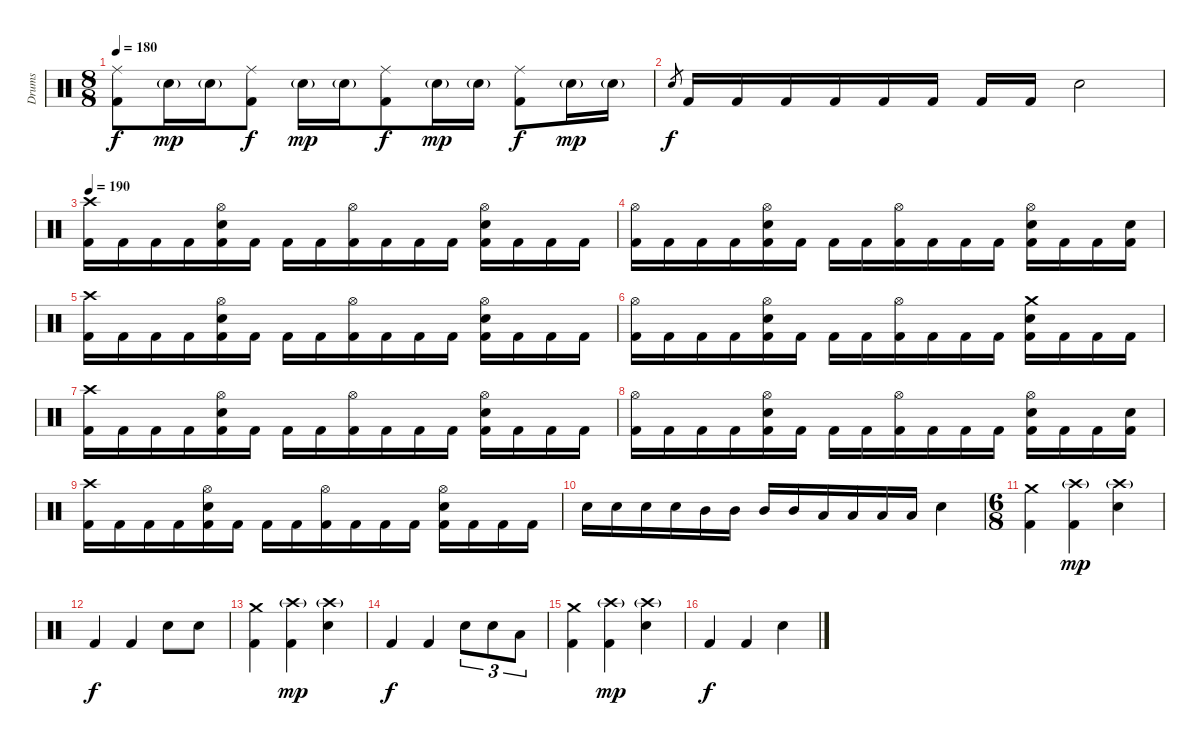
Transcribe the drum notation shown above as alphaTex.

\track ("Drums" "Drums") {instrument percussion}
\staff {score}
\articulation defaults
\ts (8 8)
\tempo 180
\clef neutral
\ks c
("Ride (middle)" "Kick (hit) 2").8{dy f} "Electric Snare (hit)"{g}.16{dy mp} "Electric Snare (hit)"{g}.16 ("Ride (middle)" "Kick (hit) 2").8{dy f} "Electric Snare (hit)"{g}.16{dy mp} "Electric Snare (hit)"{g}.16 ("Ride (middle)" "Kick (hit) 2").8{dy f} "Electric Snare (hit)"{g}.16{dy mp} "Electric Snare (hit)"{g}.16 ("Ride (middle)" "Kick (hit) 2").8{dy f} "Electric Snare (hit)"{g}.16{dy mp} "Electric Snare (hit)"{g}.16 |
"Electric Snare (hit)".8{gr dy f} "Kick (hit) 2".16 "Kick (hit) 2".16 "Kick (hit) 2".16 "Kick (hit) 2".16 "Kick (hit) 2".16 "Kick (hit) 2".16 "Kick (hit) 2".16 "Kick (hit) 2".16 "Electric Snare (hit)".2 |
\tempo 190
("Crash high (hit)" "Kick (hit) 2").16 "Kick (hit) 2".16 "Kick (hit) 2".16 "Kick (hit) 2".16 ("Hi-Hat (open)" "Electric Snare (hit)" "Kick (hit) 2").16 "Kick (hit) 2".16 "Kick (hit) 2".16 "Kick (hit) 2".16 ("Hi-Hat (open)" "Kick (hit) 2").16 "Kick (hit) 2".16 "Kick (hit) 2".16 "Kick (hit) 2".16 ("Hi-Hat (open)" "Electric Snare (hit)" "Kick (hit) 2").16 "Kick (hit) 2".16 "Kick (hit) 2".16 "Kick (hit) 2".16 |
("Hi-Hat (open)" "Kick (hit) 2").16 "Kick (hit) 2".16 "Kick (hit) 2".16 "Kick (hit) 2".16 ("Hi-Hat (open)" "Electric Snare (hit)" "Kick (hit) 2").16 "Kick (hit) 2".16 "Kick (hit) 2".16 "Kick (hit) 2".16 ("Hi-Hat (open)" "Kick (hit) 2").16 "Kick (hit) 2".16 "Kick (hit) 2".16 "Kick (hit) 2".16 ("Hi-Hat (open)" "Electric Snare (hit)" "Kick (hit) 2").16 "Kick (hit) 2".16 "Kick (hit) 2".16 ("Electric Snare (hit)" "Kick (hit) 2").16 |
("Crash high (hit)" "Kick (hit) 2").16 "Kick (hit) 2".16 "Kick (hit) 2".16 "Kick (hit) 2".16 ("Hi-Hat (open)" "Electric Snare (hit)" "Kick (hit) 2").16 "Kick (hit) 2".16 "Kick (hit) 2".16 "Kick (hit) 2".16 ("Hi-Hat (open)" "Kick (hit) 2").16 "Kick (hit) 2".16 "Kick (hit) 2".16 "Kick (hit) 2".16 ("Hi-Hat (open)" "Electric Snare (hit)" "Kick (hit) 2").16 "Kick (hit) 2".16 "Kick (hit) 2".16 "Kick (hit) 2".16 |
("Hi-Hat (open)" "Kick (hit) 2").16 "Kick (hit) 2".16 "Kick (hit) 2".16 "Kick (hit) 2".16 ("Hi-Hat (open)" "Electric Snare (hit)" "Kick (hit) 2").16 "Kick (hit) 2".16 "Kick (hit) 2".16 "Kick (hit) 2".16 ("Hi-Hat (open)" "Kick (hit) 2").16 "Kick (hit) 2".16 "Kick (hit) 2".16 "Kick (hit) 2".16 ("Crash medium (hit)" "Electric Snare (hit)" "Kick (hit) 2").16 "Kick (hit) 2".16 "Kick (hit) 2".16 "Kick (hit) 2".16 |
("Crash high (hit)" "Kick (hit) 2").16 "Kick (hit) 2".16 "Kick (hit) 2".16 "Kick (hit) 2".16 ("Hi-Hat (open)" "Electric Snare (hit)" "Kick (hit) 2").16 "Kick (hit) 2".16 "Kick (hit) 2".16 "Kick (hit) 2".16 ("Hi-Hat (open)" "Kick (hit) 2").16 "Kick (hit) 2".16 "Kick (hit) 2".16 "Kick (hit) 2".16 ("Hi-Hat (open)" "Electric Snare (hit)" "Kick (hit) 2").16 "Kick (hit) 2".16 "Kick (hit) 2".16 "Kick (hit) 2".16 |
("Hi-Hat (open)" "Kick (hit) 2").16 "Kick (hit) 2".16 "Kick (hit) 2".16 "Kick (hit) 2".16 ("Hi-Hat (open)" "Electric Snare (hit)" "Kick (hit) 2").16 "Kick (hit) 2".16 "Kick (hit) 2".16 "Kick (hit) 2".16 ("Hi-Hat (open)" "Kick (hit) 2").16 "Kick (hit) 2".16 "Kick (hit) 2".16 "Kick (hit) 2".16 ("Hi-Hat (open)" "Electric Snare (hit)" "Kick (hit) 2").16 "Kick (hit) 2".16 "Kick (hit) 2".16 ("Electric Snare (hit)" "Kick (hit) 2").16 |
("Crash high (hit)" "Kick (hit) 2").16 "Kick (hit) 2".16 "Kick (hit) 2".16 "Kick (hit) 2".16 ("Hi-Hat (open)" "Electric Snare (hit)" "Kick (hit) 2").16 "Kick (hit) 2".16 "Kick (hit) 2".16 "Kick (hit) 2".16 ("Hi-Hat (open)" "Kick (hit) 2").16 "Kick (hit) 2".16 "Kick (hit) 2".16 "Kick (hit) 2".16 ("Hi-Hat (open)" "Electric Snare (hit)" "Kick (hit) 2").16 "Kick (hit) 2".16 "Kick (hit) 2".16 "Kick (hit) 2".16 |
"Electric Snare (hit)".16 "Electric Snare (hit)".16 "Electric Snare (hit)".16 "Electric Snare (hit)".16 "Mid Tom (hit)".16 "Mid Tom (hit)".16 "Mid Tom (hit)".16 "Mid Tom (hit)".16 "Low Tom (hit)".16 "Low Tom (hit)".16 "Low Tom (hit)".16 "Low Tom (hit)".16 "Electric Snare (hit)".4 |
\ts (6 8)
("Crash medium (hit)" "Kick (hit) 2").4 ("Crash high (hit)"{g} "Kick (hit) 2").4{dy mp} ("Crash high (hit)"{g} "Electric Snare (hit)").4 |
"Kick (hit) 2".4{dy f} "Kick (hit) 2".4 "Electric Snare (hit)".8 "Electric Snare (hit)".8 |
("Crash medium (hit)" "Kick (hit) 2").4 ("Crash high (hit)"{g} "Kick (hit) 2").4{dy mp} ("Crash high (hit)"{g} "Electric Snare (hit)").4 |
"Kick (hit) 2".4{dy f} "Kick (hit) 2".4 "Electric Snare (hit)".8{tu (3 2)} "Electric Snare (hit)".8{tu (3 2)} "Low Tom (hit)".8{tu (3 2)} |
("Crash medium (hit)" "Kick (hit) 2").4 ("Crash high (hit)"{g} "Kick (hit) 2").4{dy mp} ("Crash high (hit)"{g} "Electric Snare (hit)").4 |
"Kick (hit) 2".4{dy f} "Kick (hit) 2".4 "Electric Snare (hit)".4
